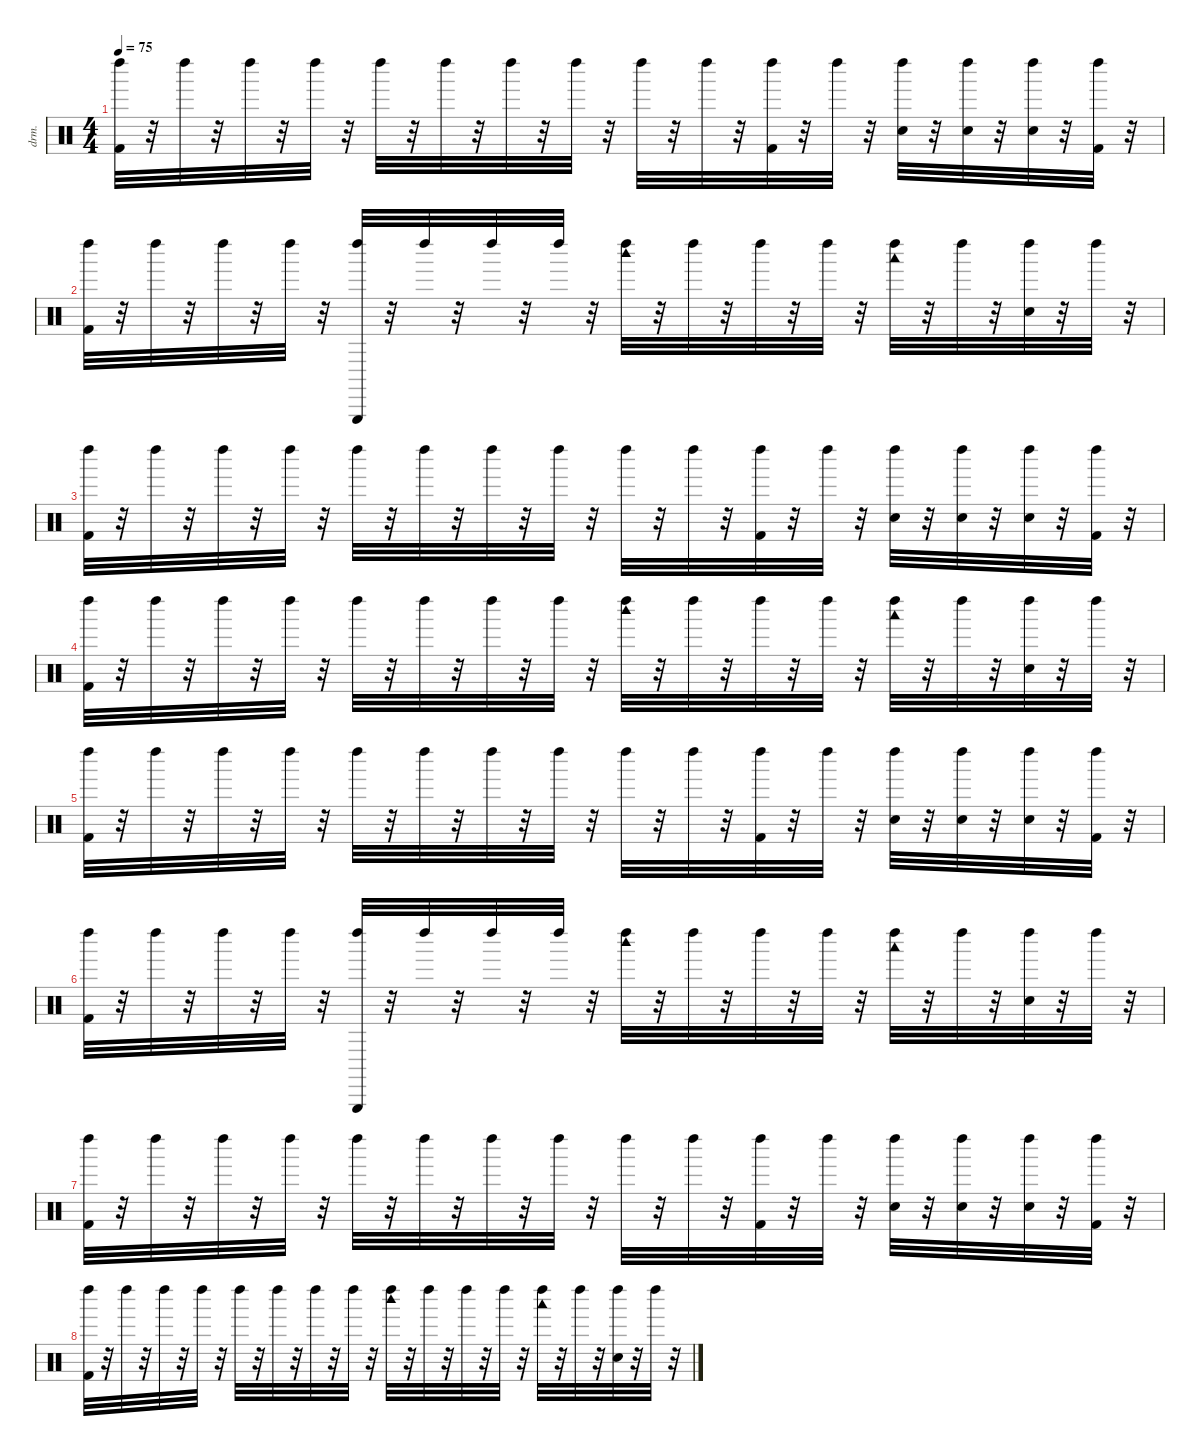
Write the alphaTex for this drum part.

\defaultSystemsLayout 4
\hideDynamics
\bracketExtendMode nobrackets
\otherSystemsTrackNameOrientation horizontal
\track ("Drums" "drm.") {instrument percussion}
\staff {score}
\articulation defaults
\ts (4 4)
\tempo 75
\clef neutral
\ks c
("Kick (hit) 2" "Left Maraca (hit)").32{dy f} r.32 "Left Maraca (hit)".32 r.32 "Left Maraca (hit)".32 r.32 "Left Maraca (hit)".32 r.32 "Left Maraca (hit)".32 r.32 "Left Maraca (hit)".32 r.32 "Left Maraca (hit)".32 r.32 "Left Maraca (hit)".32 r.32 "Left Maraca (hit)".32 r.32 "Left Maraca (hit)".32 r.32 ("Kick (hit) 2" "Left Maraca (hit)").32 r.32 "Left Maraca (hit)".32 r.32 ("Snare (hit) 2" "Left Maraca (hit)").32 r.32 ("Snare (hit) 2" "Left Maraca (hit)").32 r.32 ("Snare (hit) 2" "Left Maraca (hit)").32 r.32 ("Kick (hit) 2" "Left Maraca (hit)").32 r.32 |
("Kick (hit) 2" "Left Maraca (hit)").32 r.32 "Left Maraca (hit)".32 r.32 "Left Maraca (hit)".32 r.32 "Left Maraca (hit)".32 r.32 ("Triangle (hit)" "Left Maraca (hit)").32 r.32 "Left Maraca (hit)".32 r.32 "Left Maraca (hit)".32 r.32 "Left Maraca (hit)".32 r.32 ("Woodblock high (hit)" "Left Maraca (hit)").32 r.32 "Left Maraca (hit)".32 r.32 "Left Maraca (hit)".32 r.32 "Left Maraca (hit)".32 r.32 ("Woodblock low (hit)" "Left Maraca (hit)").32 r.32 "Left Maraca (hit)".32 r.32 ("Hand Clap (hit)" "Left Maraca (hit)").32 r.32 "Left Maraca (hit)".32 r.32 |
("Kick (hit) 2" "Left Maraca (hit)").32 r.32 "Left Maraca (hit)".32 r.32 "Left Maraca (hit)".32 r.32 "Left Maraca (hit)".32 r.32 "Left Maraca (hit)".32 r.32 "Left Maraca (hit)".32 r.32 "Left Maraca (hit)".32 r.32 "Left Maraca (hit)".32 r.32 "Left Maraca (hit)".32 r.32 "Left Maraca (hit)".32 r.32 ("Kick (hit) 2" "Left Maraca (hit)").32 r.32 "Left Maraca (hit)".32 r.32 ("Snare (hit) 2" "Left Maraca (hit)").32 r.32 ("Snare (hit) 2" "Left Maraca (hit)").32 r.32 ("Snare (hit) 2" "Left Maraca (hit)").32 r.32 ("Kick (hit) 2" "Left Maraca (hit)").32 r.32 |
("Kick (hit) 2" "Left Maraca (hit)").32 r.32 "Left Maraca (hit)".32 r.32 "Left Maraca (hit)".32 r.32 "Left Maraca (hit)".32 r.32 "Left Maraca (hit)".32 r.32 "Left Maraca (hit)".32 r.32 "Left Maraca (hit)".32 r.32 "Left Maraca (hit)".32 r.32 ("Woodblock high (hit)" "Left Maraca (hit)").32 r.32 "Left Maraca (hit)".32 r.32 "Left Maraca (hit)".32 r.32 "Left Maraca (hit)".32 r.32 ("Woodblock low (hit)" "Left Maraca (hit)").32 r.32 "Left Maraca (hit)".32 r.32 ("Hand Clap (hit)" "Left Maraca (hit)").32 r.32 "Left Maraca (hit)".32 r.32 |
("Kick (hit) 2" "Left Maraca (hit)").32 r.32 "Left Maraca (hit)".32 r.32 "Left Maraca (hit)".32 r.32 "Left Maraca (hit)".32 r.32 "Left Maraca (hit)".32 r.32 "Left Maraca (hit)".32 r.32 "Left Maraca (hit)".32 r.32 "Left Maraca (hit)".32 r.32 "Left Maraca (hit)".32 r.32 "Left Maraca (hit)".32 r.32 ("Kick (hit) 2" "Left Maraca (hit)").32 r.32 "Left Maraca (hit)".32 r.32 ("Snare (hit) 2" "Left Maraca (hit)").32 r.32 ("Snare (hit) 2" "Left Maraca (hit)").32 r.32 ("Snare (hit) 2" "Left Maraca (hit)").32 r.32 ("Kick (hit) 2" "Left Maraca (hit)").32 r.32 |
("Kick (hit) 2" "Left Maraca (hit)").32 r.32 "Left Maraca (hit)".32 r.32 "Left Maraca (hit)".32 r.32 "Left Maraca (hit)".32 r.32 ("Triangle (hit)" "Left Maraca (hit)").32 r.32 "Left Maraca (hit)".32 r.32 "Left Maraca (hit)".32 r.32 "Left Maraca (hit)".32 r.32 ("Woodblock high (hit)" "Left Maraca (hit)").32 r.32 "Left Maraca (hit)".32 r.32 "Left Maraca (hit)".32 r.32 "Left Maraca (hit)".32 r.32 ("Woodblock low (hit)" "Left Maraca (hit)").32 r.32 "Left Maraca (hit)".32 r.32 ("Hand Clap (hit)" "Left Maraca (hit)").32 r.32 "Left Maraca (hit)".32 r.32 |
("Kick (hit) 2" "Left Maraca (hit)").32 r.32 "Left Maraca (hit)".32 r.32 "Left Maraca (hit)".32 r.32 "Left Maraca (hit)".32 r.32 "Left Maraca (hit)".32 r.32 "Left Maraca (hit)".32 r.32 "Left Maraca (hit)".32 r.32 "Left Maraca (hit)".32 r.32 "Left Maraca (hit)".32 r.32 "Left Maraca (hit)".32 r.32 ("Kick (hit) 2" "Left Maraca (hit)").32 r.32 "Left Maraca (hit)".32 r.32 ("Snare (hit) 2" "Left Maraca (hit)").32 r.32 ("Snare (hit) 2" "Left Maraca (hit)").32 r.32 ("Snare (hit) 2" "Left Maraca (hit)").32 r.32 ("Kick (hit) 2" "Left Maraca (hit)").32 r.32 |
("Kick (hit) 2" "Left Maraca (hit)").32 r.32 "Left Maraca (hit)".32 r.32 "Left Maraca (hit)".32 r.32 "Left Maraca (hit)".32 r.32 "Left Maraca (hit)".32 r.32 "Left Maraca (hit)".32 r.32 "Left Maraca (hit)".32 r.32 "Left Maraca (hit)".32 r.32 ("Woodblock high (hit)" "Left Maraca (hit)").32 r.32 "Left Maraca (hit)".32 r.32 "Left Maraca (hit)".32 r.32 "Left Maraca (hit)".32 r.32 ("Woodblock low (hit)" "Left Maraca (hit)").32 r.32 "Left Maraca (hit)".32 r.32 ("Hand Clap (hit)" "Left Maraca (hit)").32 r.32 "Left Maraca (hit)".32 r.32
